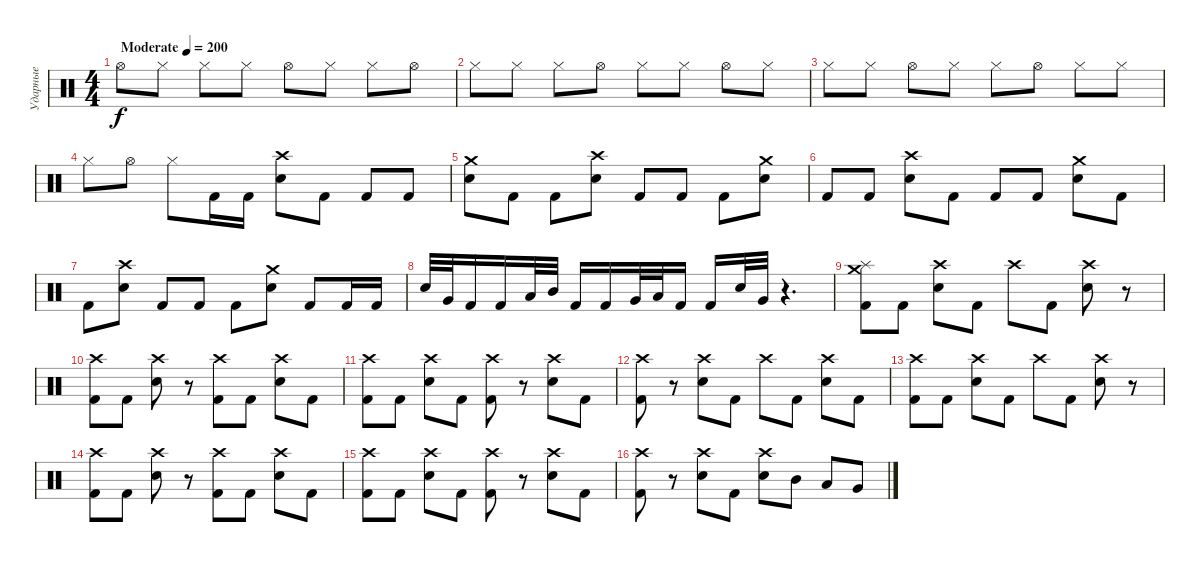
\track ("Ударные" "Ударные") {instrument percussion}
\staff {score}
\articulation defaults
\ts (4 4)
\tempo (200 "Moderate")
\clef neutral
\ks c "Hi-Hat (open)".8{dy f} "Hi-Hat (closed)".8 "Hi-Hat (closed)".8 "Hi-Hat (closed)".8 "Hi-Hat (open)".8 "Hi-Hat (closed)".8 "Hi-Hat (closed)".8 "Hi-Hat (open)".8
|
"Hi-Hat (closed)".8 "Hi-Hat (closed)".8 "Hi-Hat (closed)".8 "Hi-Hat (open)".8 "Hi-Hat (closed)".8 "Hi-Hat (closed)".8 "Hi-Hat (open)".8 "Hi-Hat (closed)".8 |
"Hi-Hat (closed)".8 "Hi-Hat (closed)".8 "Hi-Hat (open)".8 "Hi-Hat (closed)".8 "Hi-Hat (closed)".8 "Hi-Hat (open)".8 "Hi-Hat (closed)".8 "Hi-Hat (closed)".8 |
"Hi-Hat (closed)".8 "Hi-Hat (open)".8 "Hi-Hat (closed)".8 "Kick (hit) 2".16 "Kick (hit) 2".16 ("Crash high (hit)" "Snare (hit) 2").8 "Kick (hit) 2".8 "Kick (hit) 2".8 "Kick (hit) 2".8 |
("Crash medium (hit)" "Snare (hit) 2").8 "Kick (hit) 2".8 "Kick (hit) 2".8 ("Crash high (hit)" "Snare (hit) 2").8 "Kick (hit) 2".8 "Kick (hit) 2".8 "Kick (hit) 2".8 ("Crash medium (hit)" "Snare (hit) 2").8 |
"Kick (hit) 2".8 "Kick (hit) 2".8 ("Crash high (hit)" "Snare (hit) 2").8 "Kick (hit) 2".8 "Kick (hit) 2".8 "Kick (hit) 2".8 ("Crash medium (hit)" "Snare (hit) 2").8 "Kick (hit) 2".8 |
"Kick (hit) 2".8 ("Crash high (hit)" "Snare (hit) 2").8 "Kick (hit) 2".8 "Kick (hit) 2".8 "Kick (hit) 2".8 ("Crash medium (hit)" "Snare (hit) 2").8 "Kick (hit) 2".8 "Kick (hit) 2".16 "Kick (hit) 2".16 |
"Snare (hit) 2".32 "Very Low Tom (hit)".32 "Kick (hit) 2".16 "Kick (hit) 2".16 "Low Tom (hit)".32 "Mid Tom (hit)".32 "Kick (hit) 2".16 "Kick (hit) 2".16 "Very Low Tom (hit)".32 "Low Tom (hit)".32 "Kick (hit) 2".16 "Kick (hit) 2".16 "Snare (hit) 2".32 "Very Low Tom (hit)".32 r.4{d} |
("Crash medium (hit)" "Splash (hit)" "Kick (hit) 2").8 "Kick (hit) 2".8 ("Crash high (hit)" "Snare (hit) 2").8 "Kick (hit) 2".8 "Crash high (hit)".8 "Kick (hit) 2".8 ("Crash high (hit)" "Snare (hit) 2").8 r.8 |
("Crash high (hit)" "Kick (hit) 2").8 "Kick (hit) 2".8 ("Crash high (hit)" "Snare (hit) 2").8 r.8 ("Crash high (hit)" "Kick (hit) 2").8 "Kick (hit) 2".8 ("Crash high (hit)" "Snare (hit) 2").8 "Kick (hit) 2".8 |
("Crash high (hit)" "Kick (hit) 2").8 "Kick (hit) 2".8 ("Crash high (hit)" "Snare (hit) 2").8 "Kick (hit) 2".8 ("Crash high (hit)" "Kick (hit) 2").8 r.8 ("Crash high (hit)" "Snare (hit) 2").8 "Kick (hit) 2".8 |
("Crash high (hit)" "Kick (hit) 2").8 r.8 ("Crash high (hit)" "Snare (hit) 2").8 "Kick (hit) 2".8 "Crash high (hit)".8 "Kick (hit) 2".8 ("Crash high (hit)" "Snare (hit) 2").8 "Kick (hit) 2".8 |
("Crash high (hit)" "Kick (hit) 2").8 "Kick (hit) 2".8 ("Crash high (hit)" "Snare (hit) 2").8 "Kick (hit) 2".8 "Crash high (hit)".8 "Kick (hit) 2".8 ("Crash high (hit)" "Snare (hit) 2").8 r.8 |
("Crash high (hit)" "Kick (hit) 2").8 "Kick (hit) 2".8 ("Crash high (hit)" "Snare (hit) 2").8 r.8 ("Crash high (hit)" "Kick (hit) 2").8 "Kick (hit) 2".8 ("Crash high (hit)" "Snare (hit) 2").8 "Kick (hit) 2".8 |
("Crash high (hit)" "Kick (hit) 2").8 "Kick (hit) 2".8 ("Crash high (hit)" "Snare (hit) 2").8 "Kick (hit) 2".8 ("Crash high (hit)" "Kick (hit) 2").8 r.8 ("Crash high (hit)" "Snare (hit) 2").8 "Kick (hit) 2".8 |
("Crash high (hit)" "Kick (hit) 2").8 r.8 ("Crash high (hit)" "Snare (hit) 2").8 "Kick (hit) 2".8 ("Crash high (hit)" "Snare (hit) 2").8 "Mid Tom (hit)".8 "Low Tom (hit)".8 "Very Low Tom (hit)".8
